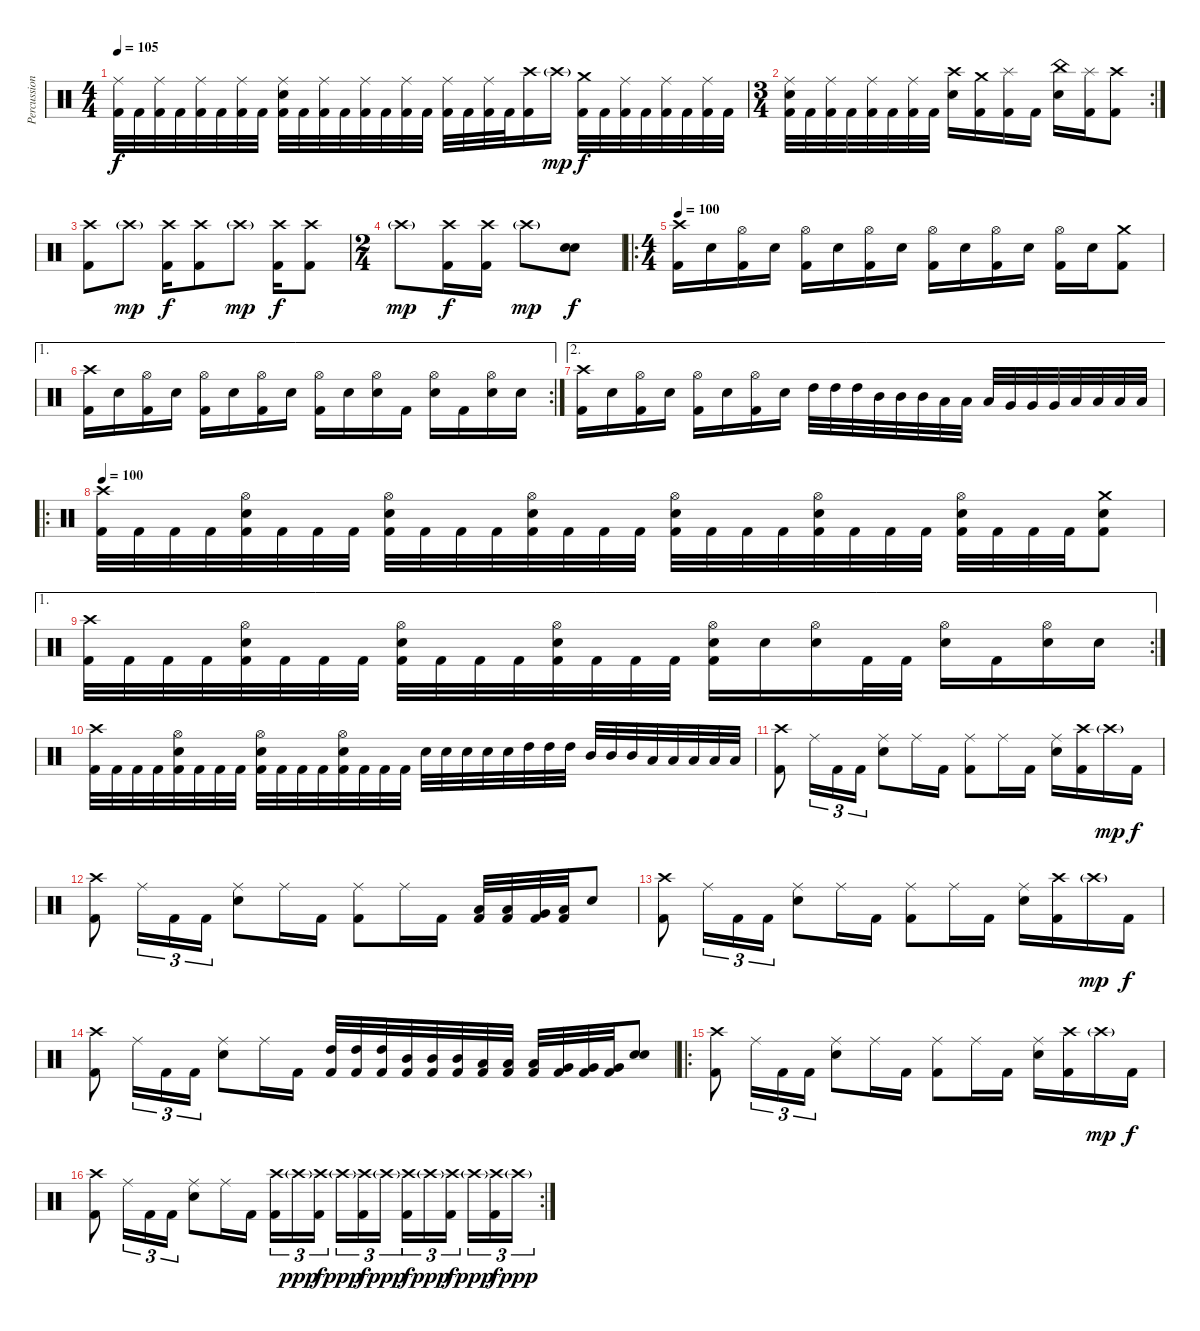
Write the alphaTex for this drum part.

\track ("Percussioni" "Percussion") {instrument percussion}
\staff {score}
\articulation defaults
\ts (4 4)
\tempo 105
\clef neutral
\ks c
("Ride (middle)" "Kick (hit) 2").32{dy f} "Kick (hit) 2".32 ("Ride (middle)" "Kick (hit) 2").32 "Kick (hit) 2".32 ("Ride (middle)" "Kick (hit) 2").32 "Kick (hit) 2".32 ("Ride (middle)" "Kick (hit) 2").32 "Kick (hit) 2".32 ("Ride (middle)" "Electric Snare (hit)" "Kick (hit) 2").32 "Kick (hit) 2".32 ("Ride (middle)" "Kick (hit) 2").32 "Kick (hit) 2".32 ("Ride (middle)" "Kick (hit) 2").32 "Kick (hit) 2".32 ("Ride (middle)" "Kick (hit) 2").32 "Kick (hit) 2".32 ("Ride (middle)" "Kick (hit) 2").32 "Kick (hit) 2".32 ("Ride (middle)" "Kick (hit) 2").32 "Kick (hit) 2".32 ("Crash high (hit)" "Kick (hit) 2").16 "Crash high (hit)"{g}.16{dy mp volume 0} ("Crash medium (hit)" "Kick (hit) 2").32{dy f volume 14} "Kick (hit) 2".32 ("Ride (middle)" "Kick (hit) 2").32 "Kick (hit) 2".32 ("Ride (middle)" "Kick (hit) 2").32 "Kick (hit) 2".32 ("Ride (middle)" "Kick (hit) 2").32 "Kick (hit) 2".32 |
\rc 2
\ts (3 4)
("Ride (middle)" "Electric Snare (hit)" "Kick (hit) 2").32 "Kick (hit) 2".32 ("Ride (middle)" "Kick (hit) 2").32 "Kick (hit) 2".32 ("Ride (middle)" "Kick (hit) 2").32 "Kick (hit) 2".32 ("Ride (middle)" "Kick (hit) 2").32 "Kick (hit) 2".32 ("Crash high (hit)" "Electric Snare (hit)").16 ("Crash medium (hit)" "Kick (hit) 2").16 ("Splash (hit)" "Kick (hit) 2").16 "Kick (hit) 2".16 ("China (hit)" "Electric Snare (hit)").16 ("Splash (hit)" "Kick (hit) 2").16 ("Crash high (hit)" "Kick (hit) 2").8 |
("Crash high (hit)" "Kick (hit) 2").8 "Crash high (hit)"{g}.8{dy mp volume 0} ("Crash high (hit)" "Kick (hit) 2").16{dy f volume 14} ("Crash high (hit)" "Kick (hit) 2").8 "Crash high (hit)"{g}.8{dy mp volume 0} ("Crash high (hit)" "Kick (hit) 2").16{dy f volume 14} ("Crash high (hit)" "Kick (hit) 2").8 |
\ts (2 4)
"Crash high (hit)"{g}.8{dy mp volume 0} ("Crash high (hit)" "Kick (hit) 2").16{dy f volume 14} ("Crash high (hit)" "Kick (hit) 2").16 "Crash high (hit)"{g}.8{dy mp volume 0} ("Electric Snare (hit)" "Electric Snare (hit)").8{dy f volume 14} |
\ro
\ts (4 4)
\tempo 100
("Crash high (hit)" "Kick (hit) 2").16 "Electric Snare (hit)".16 ("Hi-Hat (open)" "Kick (hit) 2").16 "Electric Snare (hit)".16 ("Hi-Hat (open)" "Kick (hit) 2").16 "Electric Snare (hit)".16 ("Hi-Hat (open)" "Kick (hit) 2").16 "Electric Snare (hit)".16 ("Hi-Hat (open)" "Kick (hit) 2").16 "Electric Snare (hit)".16 ("Hi-Hat (open)" "Kick (hit) 2").16 "Electric Snare (hit)".16 ("Hi-Hat (open)" "Kick (hit) 2").16 "Electric Snare (hit)".16 ("Crash medium (hit)" "Kick (hit) 2").8 |
\ae 1
\rc 2
("Crash high (hit)" "Kick (hit) 2").16 "Electric Snare (hit)".16 ("Hi-Hat (open)" "Kick (hit) 2").16 "Electric Snare (hit)".16 ("Hi-Hat (open)" "Kick (hit) 2").16 "Electric Snare (hit)".16 ("Hi-Hat (open)" "Kick (hit) 2").16 "Electric Snare (hit)".16 ("Hi-Hat (open)" "Kick (hit) 2").16 "Electric Snare (hit)".16 ("Hi-Hat (open)" "Electric Snare (hit)").16 "Kick (hit) 2".16 ("Hi-Hat (open)" "Electric Snare (hit)").16 "Kick (hit) 2".16 ("Hi-Hat (open)" "Electric Snare (hit)").16 "Electric Snare (hit)".16 |
\ae 2
("Crash high (hit)" "Kick (hit) 2").16 "Electric Snare (hit)".16 ("Hi-Hat (open)" "Kick (hit) 2").16 "Electric Snare (hit)".16 ("Hi-Hat (open)" "Kick (hit) 2").16 "Electric Snare (hit)".16 ("Hi-Hat (open)" "Kick (hit) 2").16 "Electric Snare (hit)".16 "High Tom (hit)".32 "High Tom (hit)".32 "High Tom (hit)".32 "Mid Tom (hit)".32 "Mid Tom (hit)".32 "Mid Tom (hit)".32 "Low Tom (hit)".32 "Low Tom (hit)".32 "Low Tom (hit)".32 "Very Low Tom (hit)".32 "Very Low Tom (hit)".32 "Very Low Tom (hit)".32 "Low Floor Tom (hit)".32 "Low Floor Tom (hit)".32 "Low Floor Tom (hit)".32 "Low Floor Tom (hit)".32 |
\ro
\tempo 100
("Crash high (hit)" "Kick (hit) 2").32 "Kick (hit) 2".32 "Kick (hit) 2".32 "Kick (hit) 2".32 ("Hi-Hat (open)" "Electric Snare (hit)" "Kick (hit) 2").32 "Kick (hit) 2".32 "Kick (hit) 2".32 "Kick (hit) 2".32 ("Hi-Hat (open)" "Electric Snare (hit)" "Kick (hit) 2").32 "Kick (hit) 2".32 "Kick (hit) 2".32 "Kick (hit) 2".32 ("Hi-Hat (open)" "Electric Snare (hit)" "Kick (hit) 2").32 "Kick (hit) 2".32 "Kick (hit) 2".32 "Kick (hit) 2".32 ("Hi-Hat (open)" "Electric Snare (hit)" "Kick (hit) 2").32 "Kick (hit) 2".32 "Kick (hit) 2".32 "Kick (hit) 2".32 ("Hi-Hat (open)" "Electric Snare (hit)" "Kick (hit) 2").32 "Kick (hit) 2".32 "Kick (hit) 2".32 "Kick (hit) 2".32 ("Hi-Hat (open)" "Electric Snare (hit)" "Kick (hit) 2").32 "Kick (hit) 2".32 "Kick (hit) 2".32 "Kick (hit) 2".32 ("Crash medium (hit)" "Electric Snare (hit)" "Kick (hit) 2").8 |
\ae 1
\rc 2
("Crash high (hit)" "Kick (hit) 2").32 "Kick (hit) 2".32 "Kick (hit) 2".32 "Kick (hit) 2".32 ("Hi-Hat (open)" "Electric Snare (hit)" "Kick (hit) 2").32 "Kick (hit) 2".32 "Kick (hit) 2".32 "Kick (hit) 2".32 ("Hi-Hat (open)" "Electric Snare (hit)" "Kick (hit) 2").32 "Kick (hit) 2".32 "Kick (hit) 2".32 "Kick (hit) 2".32 ("Hi-Hat (open)" "Electric Snare (hit)" "Kick (hit) 2").32 "Kick (hit) 2".32 "Kick (hit) 2".32 "Kick (hit) 2".32 ("Hi-Hat (open)" "Electric Snare (hit)" "Kick (hit) 2").16 "Electric Snare (hit)".16 ("Hi-Hat (open)" "Electric Snare (hit)").16 "Kick (hit) 2".32 "Kick (hit) 2".32 ("Hi-Hat (open)" "Electric Snare (hit)").16 "Kick (hit) 2".16 ("Hi-Hat (open)" "Electric Snare (hit)").16 "Electric Snare (hit)".16 |
("Crash high (hit)" "Kick (hit) 2").32 "Kick (hit) 2".32 "Kick (hit) 2".32 "Kick (hit) 2".32 ("Hi-Hat (open)" "Electric Snare (hit)" "Kick (hit) 2").32 "Kick (hit) 2".32 "Kick (hit) 2".32 "Kick (hit) 2".32 ("Hi-Hat (open)" "Electric Snare (hit)" "Kick (hit) 2").32 "Kick (hit) 2".32 "Kick (hit) 2".32 "Kick (hit) 2".32 ("Hi-Hat (open)" "Electric Snare (hit)" "Kick (hit) 2").32 "Kick (hit) 2".32 "Kick (hit) 2".32 "Kick (hit) 2".32 "Electric Snare (hit)".32 "Electric Snare (hit)".32 "Electric Snare (hit)".32 "Electric Snare (hit)".32 "Electric Snare (hit)".32 "High Tom (hit)".32 "High Tom (hit)".32 "High Tom (hit)".32 "Mid Tom (hit)".32 "Mid Tom (hit)".32 "Mid Tom (hit)".32 "Low Tom (hit)".32 "Low Tom (hit)".32 "Low Tom (hit)".32 "Low Floor Tom (hit)".32 "Low Floor Tom (hit)".32 |
("Crash high (hit)" "Kick (hit) 2").8 "Ride (middle)".16{tu (3 2)} "Kick (hit) 2".16{tu (3 2)} "Kick (hit) 2".16{tu (3 2)} ("Ride (middle)" "Electric Snare (hit)").8 "Ride (middle)".16 "Kick (hit) 2".16 ("Ride (middle)" "Kick (hit) 2").8 "Ride (middle)".16 "Kick (hit) 2".16 ("Ride (middle)" "Electric Snare (hit)").16 ("Crash high (hit)" "Kick (hit) 2").16 "Crash high (hit)"{g}.16{dy mp volume 0} "Kick (hit) 2".16{dy f volume 14} |
("Crash high (hit)" "Kick (hit) 2").8 "Ride (middle)".16{tu (3 2)} "Kick (hit) 2".16{tu (3 2)} "Kick (hit) 2".16{tu (3 2)} ("Ride (middle)" "Electric Snare (hit)").8 "Ride (middle)".16 "Kick (hit) 2".16 ("Ride (middle)" "Kick (hit) 2").8 "Ride (middle)".16 "Kick (hit) 2".16 ("Low Tom (hit)" "Kick (hit) 2").32 ("Low Tom (hit)" "Kick (hit) 2").32 ("Very Low Tom (hit)" "Kick (hit) 2").32 ("Low Floor Tom (hit)" "Kick (hit) 2").32 "Electric Snare (hit)".8 |
("Crash high (hit)" "Kick (hit) 2").8 "Ride (middle)".16{tu (3 2)} "Kick (hit) 2".16{tu (3 2)} "Kick (hit) 2".16{tu (3 2)} ("Ride (middle)" "Electric Snare (hit)").8 "Ride (middle)".16 "Kick (hit) 2".16 ("Ride (middle)" "Kick (hit) 2").8 "Ride (middle)".16 "Kick (hit) 2".16 ("Ride (middle)" "Electric Snare (hit)").16 ("Crash high (hit)" "Kick (hit) 2").16 "Crash high (hit)"{g}.16{dy mp volume 0} "Kick (hit) 2".16{dy f volume 14} |
("Crash high (hit)" "Kick (hit) 2").8 "Ride (middle)".16{tu (3 2)} "Kick (hit) 2".16{tu (3 2)} "Kick (hit) 2".16{tu (3 2)} ("Ride (middle)" "Electric Snare (hit)").8 "Ride (middle)".16 "Kick (hit) 2".16 ("High Tom (hit)" "Kick (hit) 2").32 ("High Tom (hit)" "Kick (hit) 2").32 ("High Tom (hit)" "Kick (hit) 2").32 ("Mid Tom (hit)" "Kick (hit) 2").32 ("Mid Tom (hit)" "Kick (hit) 2").32 ("Mid Tom (hit)" "Kick (hit) 2").32 ("Low Tom (hit)" "Kick (hit) 2").32 ("Low Tom (hit)" "Kick (hit) 2").32 ("Low Tom (hit)" "Kick (hit) 2").32 ("Very Low Tom (hit)" "Kick (hit) 2").32 ("Very Low Tom (hit)" "Kick (hit) 2").32 ("Very Low Tom (hit)" "Kick (hit) 2").32 ("Electric Snare (hit)" "Electric Snare (hit)").8 |
\ro
("Crash high (hit)" "Kick (hit) 2").8 "Ride (middle)".16{tu (3 2)} "Kick (hit) 2".16{tu (3 2)} "Kick (hit) 2".16{tu (3 2)} ("Ride (middle)" "Electric Snare (hit)").8 "Ride (middle)".16 "Kick (hit) 2".16 ("Ride (middle)" "Kick (hit) 2").8 "Ride (middle)".16 "Kick (hit) 2".16 ("Ride (middle)" "Electric Snare (hit)").16 ("Crash high (hit)" "Kick (hit) 2").16 "Crash high (hit)"{g}.16{dy mp volume 0} "Kick (hit) 2".16{dy f volume 14} |
\rc 2
("Crash high (hit)" "Kick (hit) 2").8 "Ride (middle)".16{tu (3 2)} "Kick (hit) 2".16{tu (3 2)} "Kick (hit) 2".16{tu (3 2)} ("Ride (middle)" "Electric Snare (hit)").8 "Ride (middle)".16 "Kick (hit) 2".16 ("Crash high (hit)" "Kick (hit) 2").16{tu (3 2)} "Crash high (hit)"{g}.16{tu (3 2) dy ppp} ("Crash high (hit)" "Kick (hit) 2").16{tu (3 2) dy f} "Crash high (hit)"{g}.16{tu (3 2) dy ppp} ("Crash high (hit)" "Kick (hit) 2").16{tu (3 2) dy f} "Crash high (hit)"{g}.16{tu (3 2) dy ppp} ("Crash high (hit)" "Kick (hit) 2").16{tu (3 2) dy f} "Crash high (hit)"{g}.16{tu (3 2) dy ppp} ("Crash high (hit)" "Kick (hit) 2").16{tu (3 2) dy f} "Crash high (hit)"{g}.16{tu (3 2) dy ppp} ("Crash high (hit)" "Kick (hit) 2").16{tu (3 2) dy f} "Crash high (hit)"{g}.16{tu (3 2) dy ppp}
